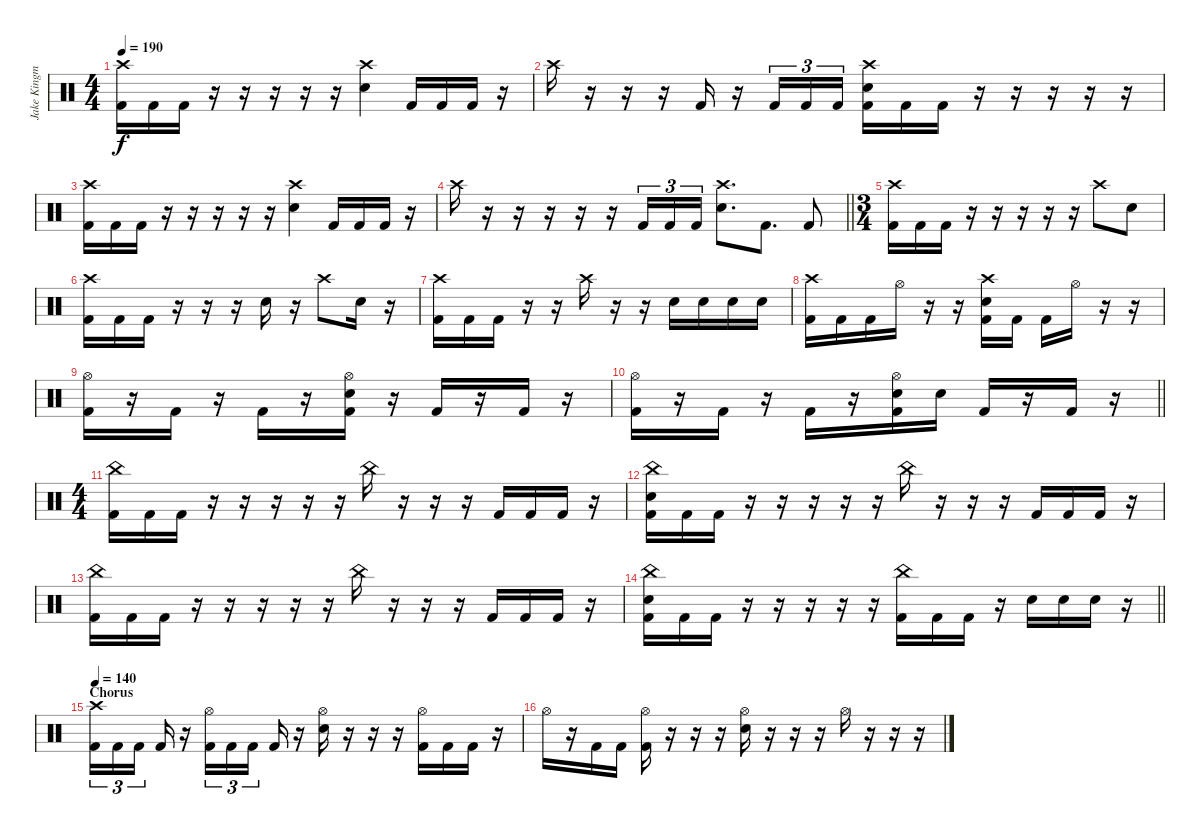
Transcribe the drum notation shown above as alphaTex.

\track ("Jake Kingman (Drums)" "Jake Kingm") {instrument percussion}
\staff {score}
\articulation defaults
\ts (4 4)
\tempo 190
\clef neutral
\ks c
("Crash high (hit)" "Kick (hit) 2").16{dy f} "Kick (hit) 2".16 "Kick (hit) 2".16 r.16 r.16 r.16 r.16 r.16 ("Crash high (hit)" "Electric Snare (hit)").4 "Kick (hit) 2".16 "Kick (hit) 2".16 "Kick (hit) 2".16 r.16 |
"Crash high (hit)".16 r.16 r.16 r.16 "Kick (hit) 2".16 r.16 "Kick (hit) 2".16{tu (3 2)} "Kick (hit) 2".16{tu (3 2)} "Kick (hit) 2".16{tu (3 2)} ("Crash high (hit)" "Electric Snare (hit)" "Kick (hit) 2").16 "Kick (hit) 2".16 "Kick (hit) 2".16 r.16 r.16 r.16 r.16 r.16 |
("Crash high (hit)" "Kick (hit) 2").16 "Kick (hit) 2".16 "Kick (hit) 2".16 r.16 r.16 r.16 r.16 r.16 ("Crash high (hit)" "Electric Snare (hit)").4 "Kick (hit) 2".16 "Kick (hit) 2".16 "Kick (hit) 2".16 r.16 |
\barLineRight lightlight "Crash high (hit)".16
r.16 r.16 r.16 r.16 r.16 "Kick (hit) 2".16{tu (3 2)} "Kick (hit) 2".16{tu (3 2)} "Kick (hit) 2".16{tu (3 2)} ("Crash high (hit)" "Electric Snare (hit)").8{d} "Kick (hit) 2".8{d} "Kick (hit) 2".8 |
\ts (3 4)
("Crash high (hit)" "Kick (hit) 2").16 "Kick (hit) 2".16 "Kick (hit) 2".16 r.16 r.16 r.16 r.16 r.16 "Crash high (hit)".8 "Electric Snare (hit)".8 |
("Crash high (hit)" "Kick (hit) 2").16 "Kick (hit) 2".16 "Kick (hit) 2".16 r.16 r.16 r.16 "Electric Snare (hit)".16 r.16 "Crash high (hit)".8 "Electric Snare (hit)".16 r.16 |
("Crash high (hit)" "Kick (hit) 2").16 "Kick (hit) 2".16 "Kick (hit) 2".16 r.16 r.16 "Crash high (hit)".16 r.16 r.16 "Electric Snare (hit)".16 "Electric Snare (hit)".16 "Electric Snare (hit)".16 "Electric Snare (hit)".16 |
("Crash high (hit)" "Kick (hit) 2").16 "Kick (hit) 2".16 "Kick (hit) 2".16 "Hi-Hat (open)".16 r.16 r.16 ("Crash high (hit)" "Electric Snare (hit)" "Kick (hit) 2").16 "Kick (hit) 2".16 "Kick (hit) 2".16 "Hi-Hat (open)".16 r.16 r.16 |
("Hi-Hat (open)" "Kick (hit) 2").16 r.16 "Kick (hit) 2".16 r.16 "Kick (hit) 2".16 r.16 ("Hi-Hat (open)" "Electric Snare (hit)" "Kick (hit) 2").16 r.16 "Kick (hit) 2".16 r.16 "Kick (hit) 2".16 r.16 |
\barLineRight lightlight
("Hi-Hat (open)" "Kick (hit) 2").16 r.16 "Kick (hit) 2".16 r.16 "Kick (hit) 2".16 r.16 ("Hi-Hat (open)" "Electric Snare (hit)" "Kick (hit) 2").16 "Electric Snare (hit)".16 "Kick (hit) 2".16 r.16 "Kick (hit) 2".16 r.16 |
\ts (4 4)
("China (hit)" "Kick (hit) 2").16 "Kick (hit) 2".16 "Kick (hit) 2".16 r.16 r.16 r.16 r.16 r.16 "China (hit)".16 r.16 r.16 r.16 "Kick (hit) 2".16 "Kick (hit) 2".16 "Kick (hit) 2".16 r.16 |
("China (hit)" "Electric Snare (hit)" "Kick (hit) 2").16 "Kick (hit) 2".16 "Kick (hit) 2".16 r.16 r.16 r.16 r.16 r.16 "China (hit)".16 r.16 r.16 r.16 "Kick (hit) 2".16 "Kick (hit) 2".16 "Kick (hit) 2".16 r.16 |
("China (hit)" "Kick (hit) 2").16 "Kick (hit) 2".16 "Kick (hit) 2".16 r.16 r.16 r.16 r.16 r.16 "China (hit)".16 r.16 r.16 r.16 "Kick (hit) 2".16 "Kick (hit) 2".16 "Kick (hit) 2".16 r.16 |
\barLineRight lightlight
("China (hit)" "Electric Snare (hit)" "Kick (hit) 2").16 "Kick (hit) 2".16 "Kick (hit) 2".16 r.16 r.16 r.16 r.16 r.16 ("China (hit)" "Kick (hit) 2").16 "Kick (hit) 2".16 "Kick (hit) 2".16 r.16 "Electric Snare (hit)".16 "Electric Snare (hit)".16 "Electric Snare (hit)".16 r.16 |
\section ("" "Chorus")
\tempo 140
("Crash high (hit)" "Kick (hit) 2").16{tu (3 2)} "Kick (hit) 2".16{tu (3 2)} "Kick (hit) 2".16{tu (3 2) beam splitsecondary} "Kick (hit) 2".16 r.16 ("Hi-Hat (open)" "Kick (hit) 2").16{tu (3 2)} "Kick (hit) 2".16{tu (3 2)} "Kick (hit) 2".16{tu (3 2) beam splitsecondary} "Kick (hit) 2".16 r.16 ("Hi-Hat (open)" "Electric Snare (hit)").16 r.16 r.16 r.16 ("Hi-Hat (open)" "Kick (hit) 2").16 "Kick (hit) 2".16 "Kick (hit) 2".16 r.16 |
"Hi-Hat (open)".16 r.16 "Kick (hit) 2".16 "Kick (hit) 2".16 ("Hi-Hat (open)" "Kick (hit) 2").16 r.16 r.16 r.16 ("Hi-Hat (open)" "Electric Snare (hit)").16 r.16 r.16 r.16 "Hi-Hat (open)".16 r.16 r.16 r.16
